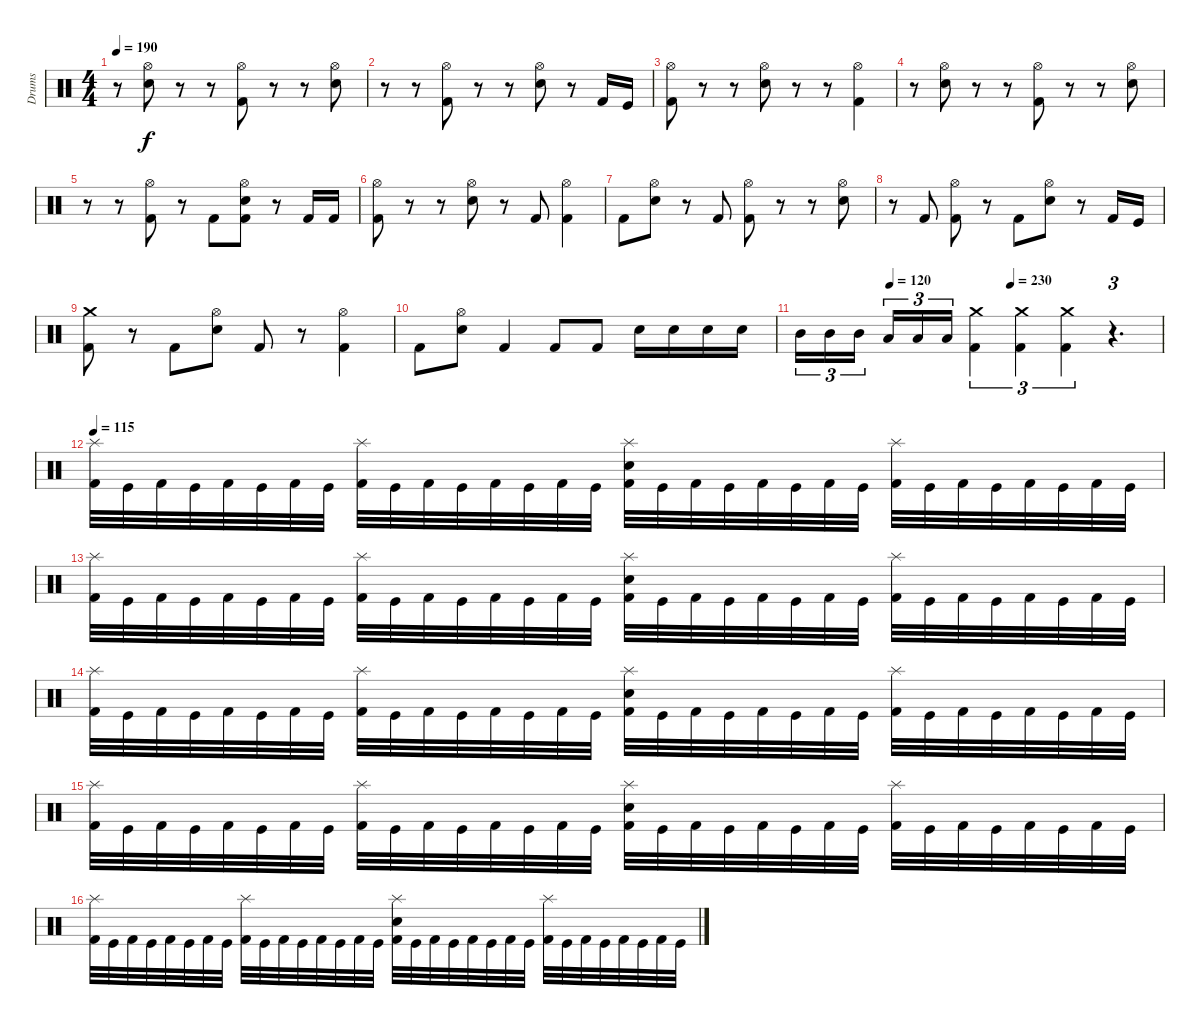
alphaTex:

\track ("Drums" "Drums") {instrument percussion}
\staff {score}
\articulation defaults
\ts (4 4)
\tempo 190
\clef neutral
\ks c
r.8{dy f} ("Hi-Hat (open)" "Electric Snare (hit)").8 r.8 r.8 ("Hi-Hat (open)" "Kick (hit) 2").8 r.8 r.8 ("Hi-Hat (open)" "Electric Snare (hit)").8 |
r.8 r.8 ("Hi-Hat (open)" "Kick (hit) 2").8 r.8 r.8 ("Hi-Hat (open)" "Electric Snare (hit)").8 r.8 "Kick (hit) 2".16 "Kick (hit)".16 |
("Hi-Hat (open)" "Kick (hit) 2").8 r.8 r.8 ("Hi-Hat (open)" "Electric Snare (hit)").8 r.8 r.8 ("Hi-Hat (open)" "Kick (hit) 2").4 |
r.8 ("Hi-Hat (open)" "Electric Snare (hit)").8 r.8 r.8 ("Hi-Hat (open)" "Kick (hit) 2").8 r.8 r.8 ("Hi-Hat (open)" "Electric Snare (hit)").8 |
r.8 r.8 ("Hi-Hat (open)" "Kick (hit) 2").8 r.8 "Kick (hit) 2".8 ("Hi-Hat (open)" "Electric Snare (hit)" "Kick (hit) 2").8 r.8 "Kick (hit) 2".16 "Kick (hit) 2".16 |
("Hi-Hat (open)" "Kick (hit) 2").8 r.8 r.8 ("Hi-Hat (open)" "Electric Snare (hit)").8 r.8 "Kick (hit) 2".8 ("Hi-Hat (open)" "Kick (hit) 2").4 |
"Kick (hit) 2".8 ("Hi-Hat (open)" "Electric Snare (hit)").8 r.8 "Kick (hit) 2".8 ("Hi-Hat (open)" "Kick (hit) 2").8 r.8 r.8 ("Hi-Hat (open)" "Electric Snare (hit)").8 |
r.8 "Kick (hit) 2".8 ("Hi-Hat (open)" "Kick (hit) 2").8 r.8 "Kick (hit) 2".8 ("Hi-Hat (open)" "Electric Snare (hit)").8 r.8 "Kick (hit) 2".16 "Kick (hit)".16 |
("Crash medium (hit)" "Kick (hit) 2").8 r.8 "Kick (hit) 2".8 ("Hi-Hat (open)" "Electric Snare (hit)").8 "Kick (hit) 2".8 r.8 ("Hi-Hat (open)" "Kick (hit) 2").4 |
"Kick (hit) 2".8 ("Hi-Hat (open)" "Electric Snare (hit)").8 "Kick (hit) 2".4 "Kick (hit) 2".8 "Kick (hit) 2".8 "Electric Snare (hit)".16 "Electric Snare (hit)".16 "Electric Snare (hit)".16 "Electric Snare (hit)".16 |
\tempo (120 0.25)
\tempo (230 0.5833333333333334)
"Mid Tom (hit)".16{tu (3 2)} "Mid Tom (hit)".16{tu (3 2)} "Mid Tom (hit)".16{tu (3 2)} "Low Tom (hit)".16{tu (3 2)} "Low Tom (hit)".16{tu (3 2)} "Low Tom (hit)".16{tu (3 2)} ("Crash medium (hit)" "Kick (hit) 2").4{tu (3 2)} ("Crash medium (hit)" "Kick (hit) 2").4{tu (3 2)} ("Crash medium (hit)" "Kick (hit) 2").4{tu (3 2)} r.4{d tu (3 2)} |
\tempo 115
("Splash (hit)" "Kick (hit) 2").32 "Kick (hit)".32 "Kick (hit) 2".32 "Kick (hit)".32 "Kick (hit) 2".32 "Kick (hit)".32 "Kick (hit) 2".32 "Kick (hit)".32 ("Splash (hit)" "Kick (hit) 2").32 "Kick (hit)".32 "Kick (hit) 2".32 "Kick (hit)".32 "Kick (hit) 2".32 "Kick (hit)".32 "Kick (hit) 2".32 "Kick (hit)".32 ("Splash (hit)" "Electric Snare (hit)" "Kick (hit) 2").32 "Kick (hit)".32 "Kick (hit) 2".32 "Kick (hit)".32 "Kick (hit) 2".32 "Kick (hit)".32 "Kick (hit) 2".32 "Kick (hit)".32 ("Splash (hit)" "Kick (hit) 2").32 "Kick (hit)".32 "Kick (hit) 2".32 "Kick (hit)".32 "Kick (hit) 2".32 "Kick (hit)".32 "Kick (hit) 2".32 "Kick (hit)".32 |
("Splash (hit)" "Kick (hit) 2").32 "Kick (hit)".32 "Kick (hit) 2".32 "Kick (hit)".32 "Kick (hit) 2".32 "Kick (hit)".32 "Kick (hit) 2".32 "Kick (hit)".32 ("Splash (hit)" "Kick (hit) 2").32 "Kick (hit)".32 "Kick (hit) 2".32 "Kick (hit)".32 "Kick (hit) 2".32 "Kick (hit)".32 "Kick (hit) 2".32 "Kick (hit)".32 ("Splash (hit)" "Electric Snare (hit)" "Kick (hit) 2").32 "Kick (hit)".32 "Kick (hit) 2".32 "Kick (hit)".32 "Kick (hit) 2".32 "Kick (hit)".32 "Kick (hit) 2".32 "Kick (hit)".32 ("Splash (hit)" "Kick (hit) 2").32 "Kick (hit)".32 "Kick (hit) 2".32 "Kick (hit)".32 "Kick (hit) 2".32 "Kick (hit)".32 "Kick (hit) 2".32 "Kick (hit)".32 |
("Splash (hit)" "Kick (hit) 2").32 "Kick (hit)".32 "Kick (hit) 2".32 "Kick (hit)".32 "Kick (hit) 2".32 "Kick (hit)".32 "Kick (hit) 2".32 "Kick (hit)".32 ("Splash (hit)" "Kick (hit) 2").32 "Kick (hit)".32 "Kick (hit) 2".32 "Kick (hit)".32 "Kick (hit) 2".32 "Kick (hit)".32 "Kick (hit) 2".32 "Kick (hit)".32 ("Splash (hit)" "Electric Snare (hit)" "Kick (hit) 2").32 "Kick (hit)".32 "Kick (hit) 2".32 "Kick (hit)".32 "Kick (hit) 2".32 "Kick (hit)".32 "Kick (hit) 2".32 "Kick (hit)".32 ("Splash (hit)" "Kick (hit) 2").32 "Kick (hit)".32 "Kick (hit) 2".32 "Kick (hit)".32 "Kick (hit) 2".32 "Kick (hit)".32 "Kick (hit) 2".32 "Kick (hit)".32 |
("Splash (hit)" "Kick (hit) 2").32 "Kick (hit)".32 "Kick (hit) 2".32 "Kick (hit)".32 "Kick (hit) 2".32 "Kick (hit)".32 "Kick (hit) 2".32 "Kick (hit)".32 ("Splash (hit)" "Kick (hit) 2").32 "Kick (hit)".32 "Kick (hit) 2".32 "Kick (hit)".32 "Kick (hit) 2".32 "Kick (hit)".32 "Kick (hit) 2".32 "Kick (hit)".32 ("Splash (hit)" "Electric Snare (hit)" "Kick (hit) 2").32 "Kick (hit)".32 "Kick (hit) 2".32 "Kick (hit)".32 "Kick (hit) 2".32 "Kick (hit)".32 "Kick (hit) 2".32 "Kick (hit)".32 ("Splash (hit)" "Kick (hit) 2").32 "Kick (hit)".32 "Kick (hit) 2".32 "Kick (hit)".32 "Kick (hit) 2".32 "Kick (hit)".32 "Kick (hit) 2".32 "Kick (hit)".32 |
("Splash (hit)" "Kick (hit) 2").32 "Kick (hit)".32 "Kick (hit) 2".32 "Kick (hit)".32 "Kick (hit) 2".32 "Kick (hit)".32 "Kick (hit) 2".32 "Kick (hit)".32 ("Splash (hit)" "Kick (hit) 2").32 "Kick (hit)".32 "Kick (hit) 2".32 "Kick (hit)".32 "Kick (hit) 2".32 "Kick (hit)".32 "Kick (hit) 2".32 "Kick (hit)".32 ("Splash (hit)" "Electric Snare (hit)" "Kick (hit) 2").32 "Kick (hit)".32 "Kick (hit) 2".32 "Kick (hit)".32 "Kick (hit) 2".32 "Kick (hit)".32 "Kick (hit) 2".32 "Kick (hit)".32 ("Splash (hit)" "Kick (hit) 2").32 "Kick (hit)".32 "Kick (hit) 2".32 "Kick (hit)".32 "Kick (hit) 2".32 "Kick (hit)".32 "Kick (hit) 2".32 "Kick (hit)".32
